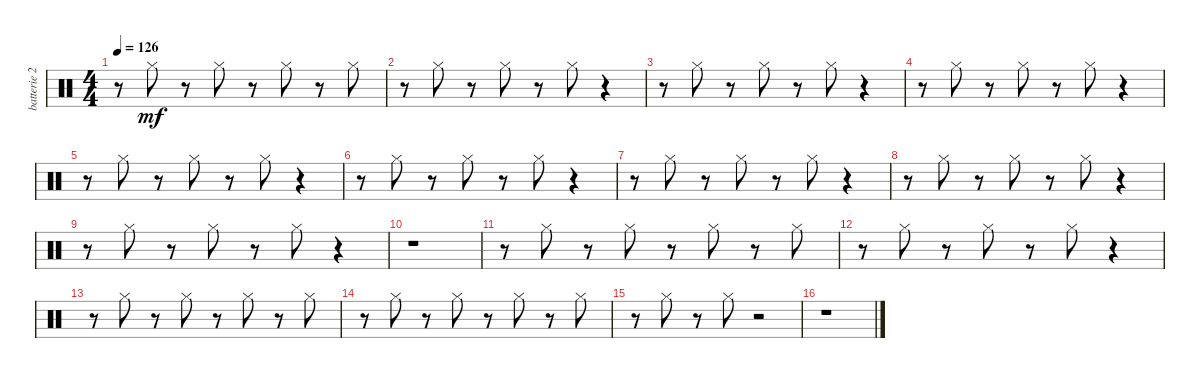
\track ("batterie 2" "batterie 2") {instrument percussion}
\staff {score}
\articulation defaults
\ts (4 4)
\tempo 126
\clef neutral
\ks c
r.8{dy mf} "Hi-Hat (closed)".8 r.8 "Hi-Hat (closed)".8 r.8 "Hi-Hat (closed)".8 r.8 "Hi-Hat (closed)".8 |
r.8 "Hi-Hat (closed)".8 r.8 "Hi-Hat (closed)".8 r.8 "Hi-Hat (closed)".8 r.4 |
r.8 "Hi-Hat (closed)".8 r.8 "Hi-Hat (closed)".8 r.8 "Hi-Hat (closed)".8 r.4 |
r.8 "Hi-Hat (closed)".8 r.8 "Hi-Hat (closed)".8 r.8 "Hi-Hat (closed)".8 r.4 |
r.8 "Hi-Hat (closed)".8 r.8 "Hi-Hat (closed)".8 r.8 "Hi-Hat (closed)".8 r.4 |
r.8 "Hi-Hat (closed)".8 r.8 "Hi-Hat (closed)".8 r.8 "Hi-Hat (closed)".8 r.4 |
r.8 "Hi-Hat (closed)".8 r.8 "Hi-Hat (closed)".8 r.8 "Hi-Hat (closed)".8 r.4 |
r.8 "Hi-Hat (closed)".8 r.8 "Hi-Hat (closed)".8 r.8 "Hi-Hat (closed)".8 r.4 |
r.8 "Hi-Hat (closed)".8 r.8 "Hi-Hat (closed)".8 r.8 "Hi-Hat (closed)".8 r.4 |
r.1 |
r.8 "Hi-Hat (closed)".8 r.8 "Hi-Hat (closed)".8 r.8 "Hi-Hat (closed)".8 r.8 "Hi-Hat (closed)".8 |
r.8 "Hi-Hat (closed)".8 r.8 "Hi-Hat (closed)".8 r.8 "Hi-Hat (closed)".8 r.4 |
r.8 "Hi-Hat (closed)".8 r.8 "Hi-Hat (closed)".8 r.8 "Hi-Hat (closed)".8 r.8 "Hi-Hat (closed)".8 |
r.8 "Hi-Hat (closed)".8 r.8 "Hi-Hat (closed)".8 r.8 "Hi-Hat (closed)".8 r.8 "Hi-Hat (closed)".8 |
r.8 "Hi-Hat (closed)".8 r.8 "Hi-Hat (closed)".8 r.2 |
r.1
